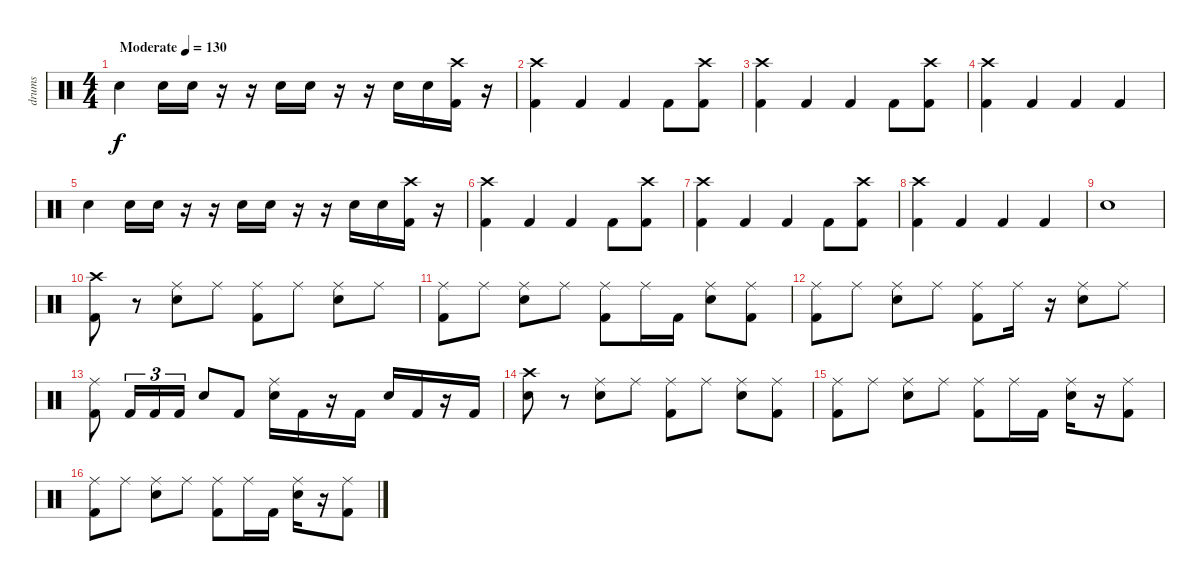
\track ("drums" "drums") {instrument percussion}
\staff {score}
\articulation defaults
\ts (4 4)
\tempo (130 "Moderate")
\clef neutral
\ks c "Snare (hit) 2".4{dy f} "Snare (hit) 2".16 "Snare (hit) 2".16
r.16 r.16 "Snare (hit) 2".16 "Snare (hit) 2".16 r.16 r.16 "Snare (hit) 2".16 "Snare (hit) 2".16 ("Crash high (hit)" "Kick (hit) 2").16 r.16 |
("Crash high (hit)" "Kick (hit) 2").4 "Kick (hit) 2".4 "Kick (hit) 2".4 "Kick (hit) 2".8 ("Crash high (hit)" "Kick (hit) 2").8 |
("Crash high (hit)" "Kick (hit) 2").4 "Kick (hit) 2".4 "Kick (hit) 2".4 "Kick (hit) 2".8 ("Crash high (hit)" "Kick (hit) 2").8 |
("Crash high (hit)" "Kick (hit) 2").4 "Kick (hit) 2".4 "Kick (hit) 2".4 "Kick (hit) 2".4 |
"Snare (hit) 2".4 "Snare (hit) 2".16 "Snare (hit) 2".16 r.16 r.16 "Snare (hit) 2".16 "Snare (hit) 2".16 r.16 r.16 "Snare (hit) 2".16 "Snare (hit) 2".16 ("Crash high (hit)" "Kick (hit) 2").16 r.16 |
("Crash high (hit)" "Kick (hit) 2").4 "Kick (hit) 2".4 "Kick (hit) 2".4 "Kick (hit) 2".8 ("Crash high (hit)" "Kick (hit) 2").8 |
("Crash high (hit)" "Kick (hit) 2").4 "Kick (hit) 2".4 "Kick (hit) 2".4 "Kick (hit) 2".8 ("Crash high (hit)" "Kick (hit) 2").8 |
("Crash high (hit)" "Kick (hit) 2").4 "Kick (hit) 2".4 "Kick (hit) 2".4 "Kick (hit) 2".4 |
"Snare (hit) 2".1 |
("Crash high (hit)" "Kick (hit) 2").8 r.8 ("Ride (middle)" "Snare (hit) 2").8 "Ride (middle)".8 ("Ride (middle)" "Kick (hit) 2").8 "Ride (middle)".8 ("Ride (middle)" "Snare (hit) 2").8 "Ride (middle)".8 |
("Ride (middle)" "Kick (hit) 2").8 "Ride (middle)".8 ("Ride (middle)" "Snare (hit) 2").8 "Ride (middle)".8 ("Ride (middle)" "Kick (hit) 2").8 "Ride (middle)".16 "Kick (hit) 2".16 ("Ride (middle)" "Snare (hit) 2").8 ("Ride (middle)" "Kick (hit) 2").8 |
("Ride (middle)" "Kick (hit) 2").8 "Ride (middle)".8 ("Ride (middle)" "Snare (hit) 2").8 "Ride (middle)".8 ("Ride (middle)" "Kick (hit) 2").8 "Ride (middle)".16 r.16 ("Ride (middle)" "Snare (hit) 2").8 "Ride (middle)".8 |
("Ride (middle)" "Kick (hit) 2").8 "Kick (hit) 2".16{tu (3 2)} "Kick (hit) 2".16{tu (3 2)} "Kick (hit) 2".16{tu (3 2)} "Snare (hit) 2".8 "Kick (hit) 2".8 ("Ride (middle)" "Snare (hit) 2").16 "Kick (hit) 2".16 r.16 "Kick (hit) 2".16 "Snare (hit) 2".16 "Kick (hit) 2".16 r.16 "Kick (hit) 2".16 |
("Crash high (hit)" "Snare (hit) 2").8 r.8 ("Ride (middle)" "Snare (hit) 2").8 "Ride (middle)".8 ("Ride (middle)" "Kick (hit) 2").8 "Ride (middle)".8 ("Ride (middle)" "Snare (hit) 2").8 ("Ride (middle)" "Kick (hit) 2").8 |
("Ride (middle)" "Kick (hit) 2").8 "Ride (middle)".8 ("Ride (middle)" "Snare (hit) 2").8 "Ride (middle)".8 ("Ride (middle)" "Kick (hit) 2").8 "Ride (middle)".16 "Kick (hit) 2".16 ("Ride (middle)" "Snare (hit) 2").16 r.16 ("Ride (middle)" "Kick (hit) 2").8 |
("Ride (middle)" "Kick (hit) 2").8 "Ride (middle)".8 ("Ride (middle)" "Snare (hit) 2").8 "Ride (middle)".8 ("Ride (middle)" "Kick (hit) 2").8 "Ride (middle)".16 "Kick (hit) 2".16 ("Ride (middle)" "Snare (hit) 2").16 r.16 ("Ride (middle)" "Kick (hit) 2").8
